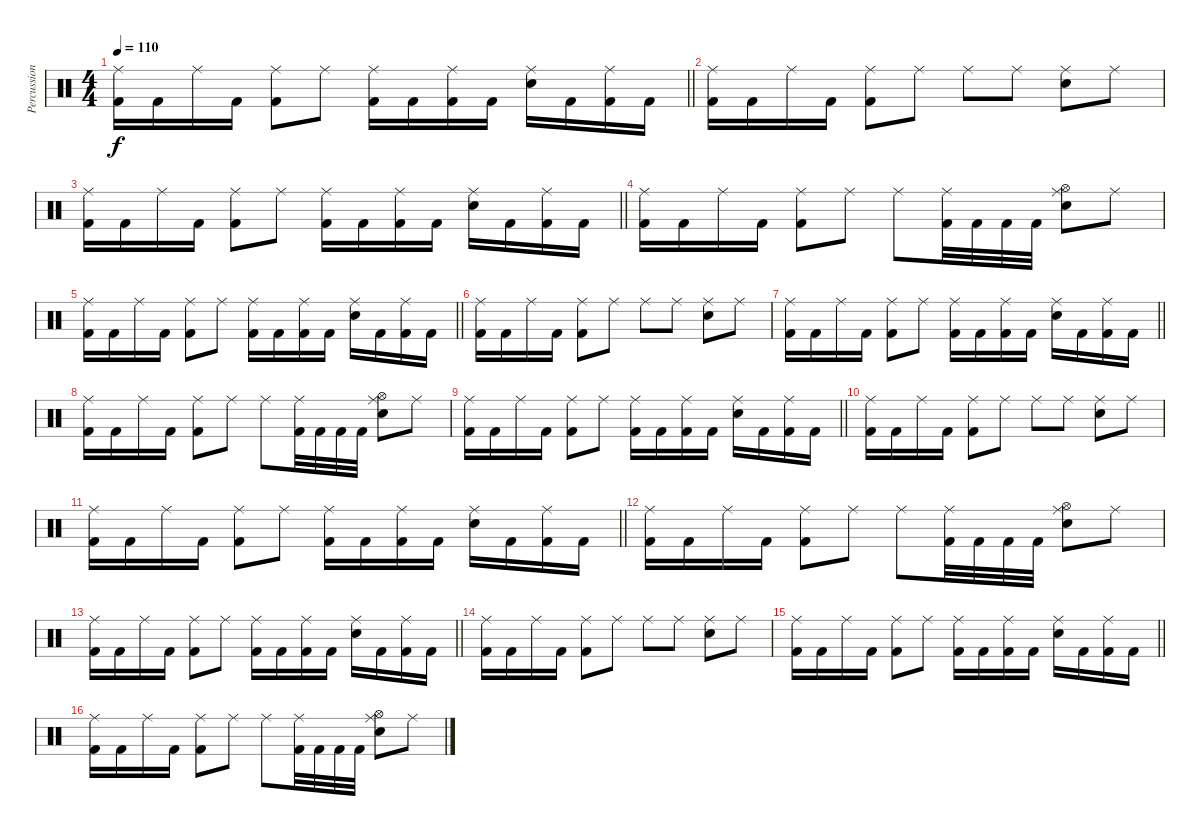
\track ("Percussion" "Percussion") {instrument percussion}
\staff {score}
\articulation defaults
\ts (4 4)
\tempo 110
\clef neutral
\barLineRight lightlight
\ks c
("Ride (middle)" "Kick (hit) 2").16{dy f} "Kick (hit) 2".16 "Ride (middle)".16 "Kick (hit) 2".16 ("Ride (middle)" "Kick (hit) 2").8 "Ride (middle)".8 ("Ride (middle)" "Kick (hit) 2").16 "Kick (hit) 2".16 ("Ride (middle)" "Kick (hit) 2").16 "Kick (hit) 2".16 ("Ride (middle)" "Snare (hit) 2").16 "Kick (hit) 2".16 ("Ride (middle)" "Kick (hit) 2").16 "Kick (hit) 2".16 |
("Ride (middle)" "Kick (hit) 2").16 "Kick (hit) 2".16 "Ride (middle)".16 "Kick (hit) 2".16 ("Ride (middle)" "Kick (hit) 2").8 "Ride (middle)".8 "Ride (middle)".8 "Ride (middle)".8 ("Ride (middle)" "Snare (hit) 2").8 "Ride (middle)".8 |
\barLineRight lightlight
("Ride (middle)" "Kick (hit) 2").16 "Kick (hit) 2".16 "Ride (middle)".16 "Kick (hit) 2".16 ("Ride (middle)" "Kick (hit) 2").8 "Ride (middle)".8 ("Ride (middle)" "Kick (hit) 2").16 "Kick (hit) 2".16 ("Ride (middle)" "Kick (hit) 2").16 "Kick (hit) 2".16 ("Ride (middle)" "Snare (hit) 2").16 "Kick (hit) 2".16 ("Ride (middle)" "Kick (hit) 2").16 "Kick (hit) 2".16 |
("Ride (middle)" "Kick (hit) 2").16 "Kick (hit) 2".16 "Ride (middle)".16 "Kick (hit) 2".16 ("Ride (middle)" "Kick (hit) 2").8 "Ride (middle)".8 "Ride (middle)".8 ("Ride (middle)" "Kick (hit) 2").32 "Kick (hit) 2".32 "Kick (hit) 2".32 "Kick (hit) 2".32 ("Ride (middle)" "Hi-Hat (open)" "Snare (hit) 2").8 "Ride (middle)".8 |
\barLineRight lightlight
("Ride (middle)" "Kick (hit) 2").16 "Kick (hit) 2".16 "Ride (middle)".16 "Kick (hit) 2".16 ("Ride (middle)" "Kick (hit) 2").8 "Ride (middle)".8 ("Ride (middle)" "Kick (hit) 2").16 "Kick (hit) 2".16 ("Ride (middle)" "Kick (hit) 2").16 "Kick (hit) 2".16 ("Ride (middle)" "Snare (hit) 2").16 "Kick (hit) 2".16 ("Ride (middle)" "Kick (hit) 2").16 "Kick (hit) 2".16 |
("Ride (middle)" "Kick (hit) 2").16 "Kick (hit) 2".16 "Ride (middle)".16 "Kick (hit) 2".16 ("Ride (middle)" "Kick (hit) 2").8 "Ride (middle)".8 "Ride (middle)".8 "Ride (middle)".8 ("Ride (middle)" "Snare (hit) 2").8 "Ride (middle)".8 |
\barLineRight lightlight
("Ride (middle)" "Kick (hit) 2").16 "Kick (hit) 2".16 "Ride (middle)".16 "Kick (hit) 2".16 ("Ride (middle)" "Kick (hit) 2").8 "Ride (middle)".8 ("Ride (middle)" "Kick (hit) 2").16 "Kick (hit) 2".16 ("Ride (middle)" "Kick (hit) 2").16 "Kick (hit) 2".16 ("Ride (middle)" "Snare (hit) 2").16 "Kick (hit) 2".16 ("Ride (middle)" "Kick (hit) 2").16 "Kick (hit) 2".16 |
("Ride (middle)" "Kick (hit) 2").16 "Kick (hit) 2".16 "Ride (middle)".16 "Kick (hit) 2".16 ("Ride (middle)" "Kick (hit) 2").8 "Ride (middle)".8 "Ride (middle)".8 ("Ride (middle)" "Kick (hit) 2").32 "Kick (hit) 2".32 "Kick (hit) 2".32 "Kick (hit) 2".32 ("Ride (middle)" "Hi-Hat (open)" "Snare (hit) 2").8 "Ride (middle)".8 |
\barLineRight lightlight
("Ride (middle)" "Kick (hit) 2").16 "Kick (hit) 2".16 "Ride (middle)".16 "Kick (hit) 2".16 ("Ride (middle)" "Kick (hit) 2").8 "Ride (middle)".8 ("Ride (middle)" "Kick (hit) 2").16 "Kick (hit) 2".16 ("Ride (middle)" "Kick (hit) 2").16 "Kick (hit) 2".16 ("Ride (middle)" "Snare (hit) 2").16 "Kick (hit) 2".16 ("Ride (middle)" "Kick (hit) 2").16 "Kick (hit) 2".16 |
("Ride (middle)" "Kick (hit) 2").16 "Kick (hit) 2".16 "Ride (middle)".16 "Kick (hit) 2".16 ("Ride (middle)" "Kick (hit) 2").8 "Ride (middle)".8 "Ride (middle)".8 "Ride (middle)".8 ("Ride (middle)" "Snare (hit) 2").8 "Ride (middle)".8 |
\barLineRight lightlight
("Ride (middle)" "Kick (hit) 2").16 "Kick (hit) 2".16 "Ride (middle)".16 "Kick (hit) 2".16 ("Ride (middle)" "Kick (hit) 2").8 "Ride (middle)".8 ("Ride (middle)" "Kick (hit) 2").16 "Kick (hit) 2".16 ("Ride (middle)" "Kick (hit) 2").16 "Kick (hit) 2".16 ("Ride (middle)" "Snare (hit) 2").16 "Kick (hit) 2".16 ("Ride (middle)" "Kick (hit) 2").16 "Kick (hit) 2".16 |
("Ride (middle)" "Kick (hit) 2").16 "Kick (hit) 2".16 "Ride (middle)".16 "Kick (hit) 2".16 ("Ride (middle)" "Kick (hit) 2").8 "Ride (middle)".8 "Ride (middle)".8 ("Ride (middle)" "Kick (hit) 2").32 "Kick (hit) 2".32 "Kick (hit) 2".32 "Kick (hit) 2".32 ("Ride (middle)" "Hi-Hat (open)" "Snare (hit) 2").8 "Ride (middle)".8 |
\barLineRight lightlight
("Ride (middle)" "Kick (hit) 2").16 "Kick (hit) 2".16 "Ride (middle)".16 "Kick (hit) 2".16 ("Ride (middle)" "Kick (hit) 2").8 "Ride (middle)".8 ("Ride (middle)" "Kick (hit) 2").16 "Kick (hit) 2".16 ("Ride (middle)" "Kick (hit) 2").16 "Kick (hit) 2".16 ("Ride (middle)" "Snare (hit) 2").16 "Kick (hit) 2".16 ("Ride (middle)" "Kick (hit) 2").16 "Kick (hit) 2".16 |
("Ride (middle)" "Kick (hit) 2").16 "Kick (hit) 2".16 "Ride (middle)".16 "Kick (hit) 2".16 ("Ride (middle)" "Kick (hit) 2").8 "Ride (middle)".8 "Ride (middle)".8 "Ride (middle)".8 ("Ride (middle)" "Snare (hit) 2").8 "Ride (middle)".8 |
\barLineRight lightlight
("Ride (middle)" "Kick (hit) 2").16 "Kick (hit) 2".16 "Ride (middle)".16 "Kick (hit) 2".16 ("Ride (middle)" "Kick (hit) 2").8 "Ride (middle)".8 ("Ride (middle)" "Kick (hit) 2").16 "Kick (hit) 2".16 ("Ride (middle)" "Kick (hit) 2").16 "Kick (hit) 2".16 ("Ride (middle)" "Snare (hit) 2").16 "Kick (hit) 2".16 ("Ride (middle)" "Kick (hit) 2").16 "Kick (hit) 2".16 |
("Ride (middle)" "Kick (hit) 2").16 "Kick (hit) 2".16 "Ride (middle)".16 "Kick (hit) 2".16 ("Ride (middle)" "Kick (hit) 2").8 "Ride (middle)".8 "Ride (middle)".8 ("Ride (middle)" "Kick (hit) 2").32 "Kick (hit) 2".32 "Kick (hit) 2".32 "Kick (hit) 2".32 ("Ride (middle)" "Hi-Hat (open)" "Snare (hit) 2").8 "Ride (middle)".8
